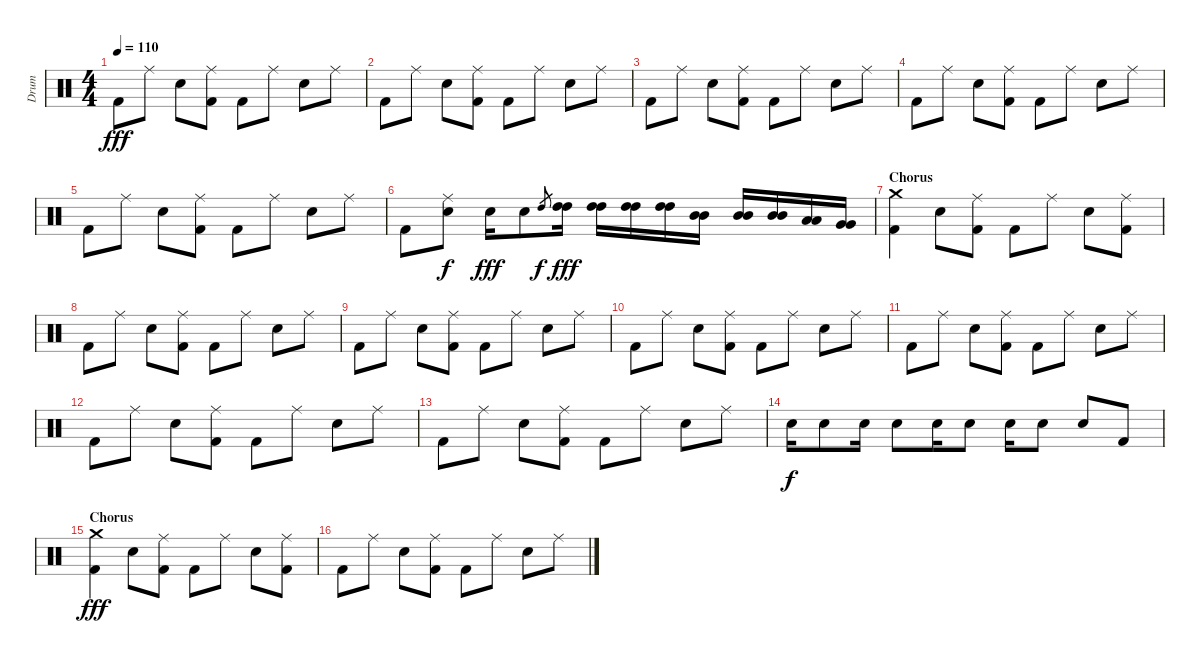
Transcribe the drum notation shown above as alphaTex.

\track ("Drum" "Drum") {instrument percussion}
\staff {score}
\articulation defaults
\ts (4 4)
\tempo 110
\clef neutral
\ks c "Kick (hit) 2".8{dy fff} "Ride (middle)".8 "Electric Snare (hit)".8
("Ride (middle)" "Kick (hit) 2").8 "Kick (hit) 2".8 "Ride (middle)".8 "Electric Snare (hit)".8 "Ride (middle)".8 |
"Kick (hit) 2".8 "Ride (middle)".8 "Electric Snare (hit)".8 ("Ride (middle)" "Kick (hit) 2").8 "Kick (hit) 2".8 "Ride (middle)".8 "Electric Snare (hit)".8 "Ride (middle)".8 |
"Kick (hit) 2".8 "Ride (middle)".8 "Electric Snare (hit)".8 ("Ride (middle)" "Kick (hit) 2").8 "Kick (hit) 2".8 "Ride (middle)".8 "Electric Snare (hit)".8 "Ride (middle)".8 |
"Kick (hit) 2".8 "Ride (middle)".8 "Electric Snare (hit)".8 ("Ride (middle)" "Kick (hit) 2").8 "Kick (hit) 2".8 "Ride (middle)".8 "Electric Snare (hit)".8 "Ride (middle)".8 |
"Kick (hit) 2".8 "Ride (middle)".8 "Electric Snare (hit)".8 ("Ride (middle)" "Kick (hit) 2").8 "Kick (hit) 2".8 "Ride (middle)".8 "Electric Snare (hit)".8 "Ride (middle)".8 |
"Kick (hit) 2".8 ("Ride (middle)" "Electric Snare (hit)").8{dy f} "Electric Snare (hit)".16{dy fff} "Electric Snare (hit)".8 "High Tom (hit)".8{gr dy f} ("High Tom (hit)" "High Tom (hit)").16{dy fff} ("High Tom (hit)" "High Tom (hit)").16 ("High Tom (hit)" "High Tom (hit)").16 ("High Tom (hit)" "High Tom (hit)").16 ("Mid Tom (hit)" "Mid Tom (hit)").16 ("Mid Tom (hit)" "Mid Tom (hit)").16 ("Mid Tom (hit)" "Mid Tom (hit)").16 ("Low Tom (hit)" "Low Tom (hit)").16 ("Very Low Tom (hit)" "Very Low Tom (hit)").16 |
\section ("" "Chorus")
("Crash medium (hit)" "Kick (hit) 2").4 "Electric Snare (hit)".8 ("Ride (middle)" "Kick (hit) 2").8 "Kick (hit) 2".8 "Ride (middle)".8 "Electric Snare (hit)".8 ("Ride (middle)" "Kick (hit) 2").8 |
"Kick (hit) 2".8 "Ride (middle)".8 "Electric Snare (hit)".8 ("Ride (middle)" "Kick (hit) 2").8 "Kick (hit) 2".8 "Ride (middle)".8 "Electric Snare (hit)".8 "Ride (middle)".8 |
"Kick (hit) 2".8 "Ride (middle)".8 "Electric Snare (hit)".8 ("Ride (middle)" "Kick (hit) 2").8 "Kick (hit) 2".8 "Ride (middle)".8 "Electric Snare (hit)".8 "Ride (middle)".8 |
"Kick (hit) 2".8 "Ride (middle)".8 "Electric Snare (hit)".8 ("Ride (middle)" "Kick (hit) 2").8 "Kick (hit) 2".8 "Ride (middle)".8 "Electric Snare (hit)".8 "Ride (middle)".8 |
"Kick (hit) 2".8 "Ride (middle)".8 "Electric Snare (hit)".8 ("Ride (middle)" "Kick (hit) 2").8 "Kick (hit) 2".8 "Ride (middle)".8 "Electric Snare (hit)".8 "Ride (middle)".8 |
"Kick (hit) 2".8 "Ride (middle)".8 "Electric Snare (hit)".8 ("Ride (middle)" "Kick (hit) 2").8 "Kick (hit) 2".8 "Ride (middle)".8 "Electric Snare (hit)".8 "Ride (middle)".8 |
"Kick (hit) 2".8 "Ride (middle)".8 "Electric Snare (hit)".8 ("Ride (middle)" "Kick (hit) 2").8 "Kick (hit) 2".8 "Ride (middle)".8 "Electric Snare (hit)".8 "Ride (middle)".8 |
"Electric Snare (hit)".16{dy f} "Electric Snare (hit)".8 "Electric Snare (hit)".16 "Electric Snare (hit)".8 "Electric Snare (hit)".16 "Electric Snare (hit)".8 "Electric Snare (hit)".16 "Electric Snare (hit)".8 "Electric Snare (hit)".8 "Kick (hit) 2".8 |
\section ("" "Chorus")
("Crash medium (hit)" "Kick (hit) 2").4{dy fff} "Electric Snare (hit)".8 ("Ride (middle)" "Kick (hit) 2").8 "Kick (hit) 2".8 "Ride (middle)".8 "Electric Snare (hit)".8 ("Ride (middle)" "Kick (hit) 2").8 |
"Kick (hit) 2".8 "Ride (middle)".8 "Electric Snare (hit)".8 ("Ride (middle)" "Kick (hit) 2").8 "Kick (hit) 2".8 "Ride (middle)".8 "Electric Snare (hit)".8 "Ride (middle)".8
